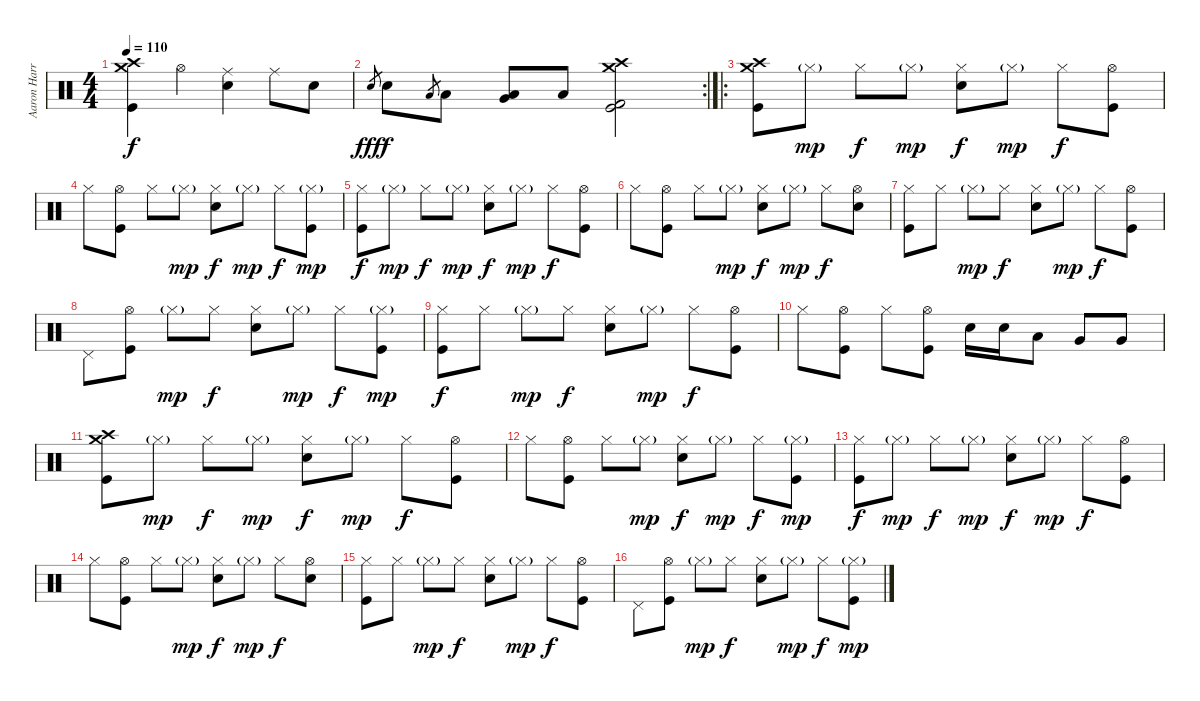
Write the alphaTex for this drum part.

\track ("Aaron Harris" "Aaron Harr") {instrument percussion}
\staff {score}
\articulation defaults
\ts (4 4)
\tempo 110
\clef neutral
\ks c
("Crash medium (hit)" "Crash high (hit)" "Kick (hit)").4{dy f} "Hi-Hat (open)".4 ("Ride (middle)" "Electric Snare (hit)").4 "Ride (middle)".8 "Electric Snare (hit)".8 |
\rc 2 "Electric Snare (hit)".8{gr dy fff} "Electric Snare (hit)".8{dy f} "Low Tom (hit)".8{gr} "Low Tom (hit)".8
("Very Low Tom (hit)" "Low Floor Tom (hit)").8 "Low Floor Tom (hit)".8 ("Crash medium (hit)" "Crash high (hit)" "Kick (hit) 2" "Kick (hit)").2 |
\ro
("Crash medium (hit)" "Crash high (hit)" "Kick (hit)").8 "Hi-Hat (closed)"{g}.8{dy mp} "Hi-Hat (closed)".8{dy f} "Hi-Hat (closed)"{g}.8{dy mp} ("Hi-Hat (closed)" "Electric Snare (hit)").8{dy f} "Hi-Hat (closed)"{g}.8{dy mp} "Hi-Hat (closed)".8{dy f} ("Hi-Hat (open)" "Kick (hit)").8 |
"Hi-Hat (closed)".8 ("Hi-Hat (open)" "Kick (hit)").8 "Hi-Hat (closed)".8 "Hi-Hat (closed)"{g}.8{dy mp} ("Hi-Hat (closed)" "Electric Snare (hit)").8{dy f} "Hi-Hat (closed)"{g}.8{dy mp} "Hi-Hat (closed)".8{dy f} ("Hi-Hat (closed)"{g} "Kick (hit)").8{dy mp} |
("Hi-Hat (closed)" "Kick (hit)").8{dy f} "Hi-Hat (closed)"{g}.8{dy mp} "Hi-Hat (closed)".8{dy f} "Hi-Hat (closed)"{g}.8{dy mp} ("Hi-Hat (closed)" "Electric Snare (hit)").8{dy f} "Hi-Hat (closed)"{g}.8{dy mp} "Hi-Hat (closed)".8{dy f} ("Hi-Hat (open)" "Kick (hit)").8 |
"Hi-Hat (closed)".8 ("Hi-Hat (open)" "Kick (hit)").8 "Hi-Hat (closed)".8 "Hi-Hat (closed)"{g}.8{dy mp} ("Hi-Hat (closed)" "Electric Snare (hit)").8{dy f} "Hi-Hat (closed)"{g}.8{dy mp} "Hi-Hat (closed)".8{dy f} ("Hi-Hat (open)" "Electric Snare (hit)").8 |
("Hi-Hat (closed)" "Kick (hit)").8 "Hi-Hat (closed)".8 "Hi-Hat (closed)"{g}.8{dy mp} "Hi-Hat (closed)".8{dy f} ("Hi-Hat (closed)" "Electric Snare (hit)").8 "Hi-Hat (closed)"{g}.8{dy mp} "Hi-Hat (closed)".8{dy f} ("Hi-Hat (open)" "Kick (hit)").8 |
"Pedal Hi-Hat (hit)".8 ("Hi-Hat (open)" "Kick (hit)").8 "Hi-Hat (closed)"{g}.8{dy mp} "Hi-Hat (closed)".8{dy f} ("Hi-Hat (closed)" "Electric Snare (hit)").8 "Hi-Hat (closed)"{g}.8{dy mp} "Hi-Hat (closed)".8{dy f} ("Hi-Hat (closed)"{g} "Kick (hit)").8{dy mp} |
("Hi-Hat (closed)" "Kick (hit)").8{dy f} "Hi-Hat (closed)".8 "Hi-Hat (closed)"{g}.8{dy mp} "Hi-Hat (closed)".8{dy f} ("Hi-Hat (closed)" "Electric Snare (hit)").8 "Hi-Hat (closed)"{g}.8{dy mp} "Hi-Hat (closed)".8{dy f} ("Hi-Hat (open)" "Kick (hit)").8 |
"Hi-Hat (closed)".8 ("Hi-Hat (open)" "Kick (hit)").8 "Hi-Hat (closed)".8 ("Hi-Hat (open)" "Kick (hit)").8 "Electric Snare (hit)".16 "Electric Snare (hit)".16 "Low Tom (hit)".8 "Very Low Tom (hit)".8 "Very Low Tom (hit)".8 |
("Crash medium (hit)" "Crash high (hit)" "Kick (hit)").8 "Hi-Hat (closed)"{g}.8{dy mp} "Hi-Hat (closed)".8{dy f} "Hi-Hat (closed)"{g}.8{dy mp} ("Hi-Hat (closed)" "Electric Snare (hit)").8{dy f} "Hi-Hat (closed)"{g}.8{dy mp} "Hi-Hat (closed)".8{dy f} ("Hi-Hat (open)" "Kick (hit)").8 |
"Hi-Hat (closed)".8 ("Hi-Hat (open)" "Kick (hit)").8 "Hi-Hat (closed)".8 "Hi-Hat (closed)"{g}.8{dy mp} ("Hi-Hat (closed)" "Electric Snare (hit)").8{dy f} "Hi-Hat (closed)"{g}.8{dy mp} "Hi-Hat (closed)".8{dy f} ("Hi-Hat (closed)"{g} "Kick (hit)").8{dy mp} |
("Hi-Hat (closed)" "Kick (hit)").8{dy f} "Hi-Hat (closed)"{g}.8{dy mp} "Hi-Hat (closed)".8{dy f} "Hi-Hat (closed)"{g}.8{dy mp} ("Hi-Hat (closed)" "Electric Snare (hit)").8{dy f} "Hi-Hat (closed)"{g}.8{dy mp} "Hi-Hat (closed)".8{dy f} ("Hi-Hat (open)" "Kick (hit)").8 |
"Hi-Hat (closed)".8 ("Hi-Hat (open)" "Kick (hit)").8 "Hi-Hat (closed)".8 "Hi-Hat (closed)"{g}.8{dy mp} ("Hi-Hat (closed)" "Electric Snare (hit)").8{dy f} "Hi-Hat (closed)"{g}.8{dy mp} "Hi-Hat (closed)".8{dy f} ("Hi-Hat (open)" "Electric Snare (hit)").8 |
("Hi-Hat (closed)" "Kick (hit)").8 "Hi-Hat (closed)".8 "Hi-Hat (closed)"{g}.8{dy mp} "Hi-Hat (closed)".8{dy f} ("Hi-Hat (closed)" "Electric Snare (hit)").8 "Hi-Hat (closed)"{g}.8{dy mp} "Hi-Hat (closed)".8{dy f} ("Hi-Hat (open)" "Kick (hit)").8 |
"Pedal Hi-Hat (hit)".8 ("Hi-Hat (open)" "Kick (hit)").8 "Hi-Hat (closed)"{g}.8{dy mp} "Hi-Hat (closed)".8{dy f} ("Hi-Hat (closed)" "Electric Snare (hit)").8 "Hi-Hat (closed)"{g}.8{dy mp} "Hi-Hat (closed)".8{dy f} ("Hi-Hat (closed)"{g} "Kick (hit)").8{dy mp}
